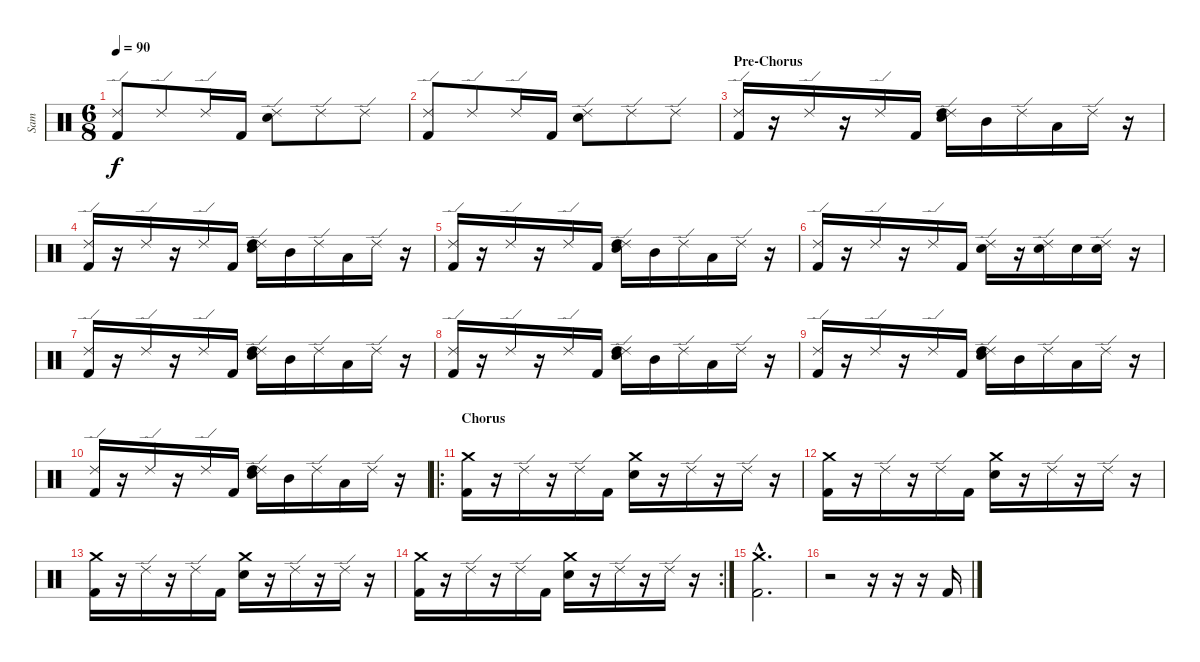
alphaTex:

\track ("Sam" "Sam") {instrument percussion}
\staff {score}
\articulation defaults
\ts (6 8)
\tempo 90
\clef neutral
\ks c
("Ride (edge) 2" "Kick (hit) 2").8{dy f} "Ride (edge) 2".8 "Ride (edge) 2".16 "Kick (hit) 2".16 ("Ride (edge) 2" "Snare (hit) 2").8 "Ride (edge) 2".8 "Ride (edge) 2".8 |
("Ride (edge) 2" "Kick (hit) 2").8 "Ride (edge) 2".8 "Ride (edge) 2".16 "Kick (hit) 2".16 ("Ride (edge) 2" "Snare (hit) 2").8 "Ride (edge) 2".8 "Ride (edge) 2".8 |
\section ("" "Pre-Chorus")
("Ride (edge) 2" "Kick (hit) 2").16 r.16 "Ride (edge) 2".16 r.16 "Ride (edge) 2".16 "Kick (hit) 2".16 ("Ride (edge) 2" "High Tom (hit)" "Snare (hit) 2").16 "Mid Tom (hit)".16 "Ride (edge) 2".16 "Low Tom (hit)".16 "Ride (edge) 2".16 r.16 |
("Ride (edge) 2" "Kick (hit) 2").16 r.16 "Ride (edge) 2".16 r.16 "Ride (edge) 2".16 "Kick (hit) 2".16 ("Ride (edge) 2" "High Tom (hit)" "Snare (hit) 2").16 "Mid Tom (hit)".16 "Ride (edge) 2".16 "Low Tom (hit)".16 "Ride (edge) 2".16 r.16 |
("Ride (edge) 2" "Kick (hit) 2").16 r.16 "Ride (edge) 2".16 r.16 "Ride (edge) 2".16 "Kick (hit) 2".16 ("Ride (edge) 2" "High Tom (hit)" "Snare (hit) 2").16 "Mid Tom (hit)".16 "Ride (edge) 2".16 "Low Tom (hit)".16 "Ride (edge) 2".16 r.16 |
("Ride (edge) 2" "Kick (hit) 2").16 r.16 "Ride (edge) 2".16 r.16 "Ride (edge) 2".16 "Kick (hit) 2".16 ("Ride (edge) 2" "Snare (hit) 2").16 r.16 ("Ride (edge) 2" "Snare (hit) 2").16 "Snare (hit) 2".16 ("Ride (edge) 2" "Snare (hit) 2").16 r.16 |
("Ride (edge) 2" "Kick (hit) 2").16 r.16 "Ride (edge) 2".16 r.16 "Ride (edge) 2".16 "Kick (hit) 2".16 ("Ride (edge) 2" "High Tom (hit)" "Snare (hit) 2").16 "Mid Tom (hit)".16 "Ride (edge) 2".16 "Low Tom (hit)".16 "Ride (edge) 2".16 r.16 |
("Ride (edge) 2" "Kick (hit) 2").16 r.16 "Ride (edge) 2".16 r.16 "Ride (edge) 2".16 "Kick (hit) 2".16 ("Ride (edge) 2" "High Tom (hit)" "Snare (hit) 2").16 "Mid Tom (hit)".16 "Ride (edge) 2".16 "Low Tom (hit)".16 "Ride (edge) 2".16 r.16 |
("Ride (edge) 2" "Kick (hit) 2").16 r.16 "Ride (edge) 2".16 r.16 "Ride (edge) 2".16 "Kick (hit) 2".16 ("Ride (edge) 2" "High Tom (hit)" "Snare (hit) 2").16 "Mid Tom (hit)".16 "Ride (edge) 2".16 "Low Tom (hit)".16 "Ride (edge) 2".16 r.16 |
("Ride (edge) 2" "Kick (hit) 2").16 r.16 "Ride (edge) 2".16 r.16 "Ride (edge) 2".16 "Kick (hit) 2".16 ("Ride (edge) 2" "High Tom (hit)" "Snare (hit) 2").16 "Mid Tom (hit)".16 "Ride (edge) 2".16 "Low Tom (hit)".16 "Ride (edge) 2".16 r.16 |
\ro
\section ("" "Chorus")
("Crash medium (hit)" "Kick (hit) 2").16 r.16 "Ride (edge) 2".16 r.16 "Ride (edge) 2".16 "Kick (hit) 2".16 ("Crash medium (hit)" "Snare (hit) 2").16 r.16 "Ride (edge) 2".16 r.16 "Ride (edge) 2".16 r.16 |
("Crash medium (hit)" "Kick (hit) 2").16 r.16 "Ride (edge) 2".16 r.16 "Ride (edge) 2".16 "Kick (hit) 2".16 ("Crash medium (hit)" "Snare (hit) 2").16 r.16 "Ride (edge) 2".16 r.16 "Ride (edge) 2".16 r.16 |
("Crash medium (hit)" "Kick (hit) 2").16 r.16 "Ride (edge) 2".16 r.16 "Ride (edge) 2".16 "Kick (hit) 2".16 ("Crash medium (hit)" "Snare (hit) 2").16 r.16 "Ride (edge) 2".16 r.16 "Ride (edge) 2".16 r.16 |
\rc 2
("Crash medium (hit)" "Kick (hit) 2").16 r.16 "Ride (edge) 2".16 r.16 "Ride (edge) 2".16 "Kick (hit) 2".16 ("Crash medium (hit)" "Snare (hit) 2").16 r.16 "Ride (edge) 2".16 r.16 "Ride (edge) 2".16 r.16 |
("Crash medium (hit)"{hac} "Kick (hit) 2"{hac}).2{d} |
r.2 r.16 r.16 r.16 "Kick (hit) 2".16
